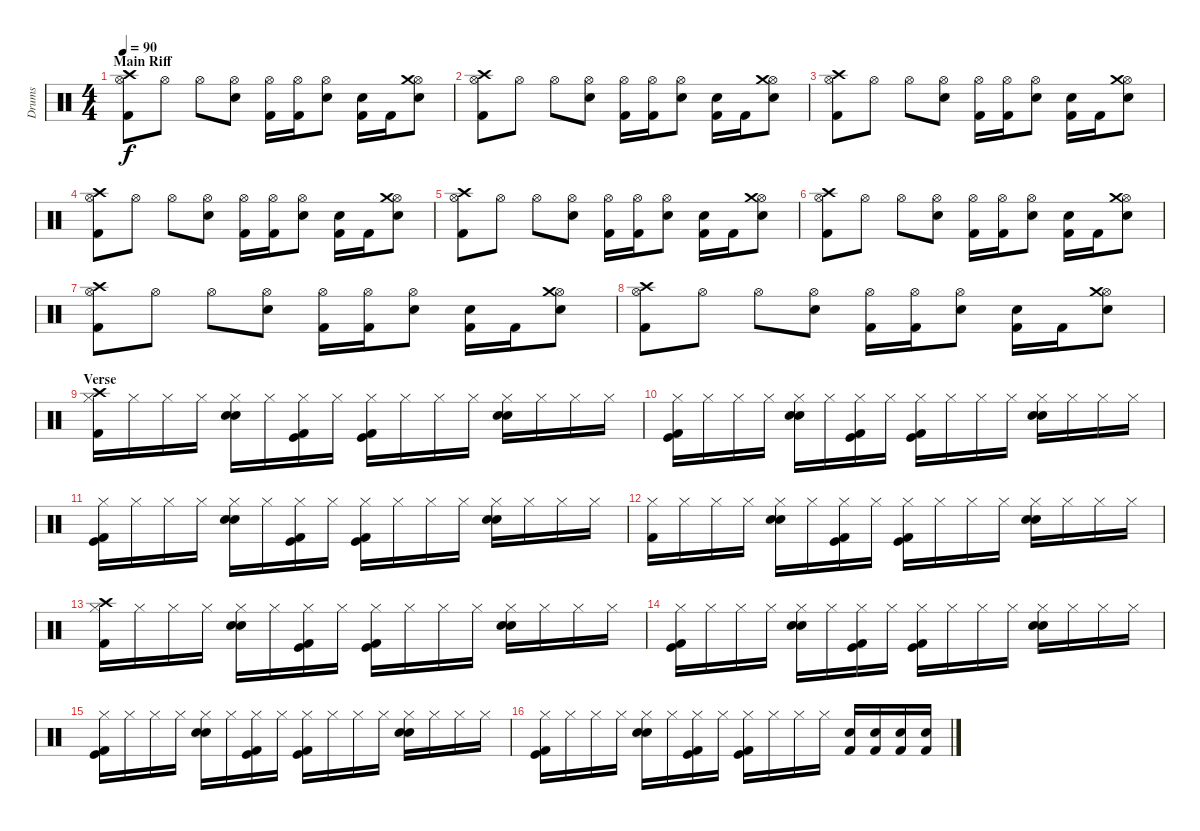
\track ("Drums" "Drums") {instrument percussion}
\staff {score}
\articulation defaults
\ts (4 4)
\section ("" "Main Riff")
\tempo 90
\clef neutral
\ks c
("Hi-Hat (open)" "Kick (hit) 2" "Crash high (hit)").8{dy f} "Hi-Hat (open)".8 "Hi-Hat (open)".8 ("Hi-Hat (open)" "Electric Snare (hit)").8 ("Hi-Hat (open)" "Kick (hit) 2").16 ("Hi-Hat (open)" "Kick (hit) 2").16 ("Electric Snare (hit)" "Hi-Hat (open)").8 ("Electric Snare (hit)" "Kick (hit) 2").16 "Kick (hit) 2".16 ("Electric Snare (hit)" "Hi-Hat (open)" "Crash medium (hit)").8 |
("Hi-Hat (open)" "Kick (hit) 2" "Crash high (hit)").8 "Hi-Hat (open)".8 "Hi-Hat (open)".8 ("Hi-Hat (open)" "Electric Snare (hit)").8 ("Hi-Hat (open)" "Kick (hit) 2").16 ("Hi-Hat (open)" "Kick (hit) 2").16 ("Electric Snare (hit)" "Hi-Hat (open)").8 ("Electric Snare (hit)" "Kick (hit) 2").16 "Kick (hit) 2".16 ("Electric Snare (hit)" "Hi-Hat (open)" "Crash medium (hit)").8 |
("Hi-Hat (open)" "Kick (hit) 2" "Crash high (hit)").8 "Hi-Hat (open)".8 "Hi-Hat (open)".8 ("Hi-Hat (open)" "Electric Snare (hit)").8 ("Hi-Hat (open)" "Kick (hit) 2").16 ("Hi-Hat (open)" "Kick (hit) 2").16 ("Electric Snare (hit)" "Hi-Hat (open)").8 ("Electric Snare (hit)" "Kick (hit) 2").16 "Kick (hit) 2".16 ("Electric Snare (hit)" "Hi-Hat (open)" "Crash medium (hit)").8 |
("Hi-Hat (open)" "Kick (hit) 2" "Crash high (hit)").8 "Hi-Hat (open)".8 "Hi-Hat (open)".8 ("Hi-Hat (open)" "Electric Snare (hit)").8 ("Hi-Hat (open)" "Kick (hit) 2").16 ("Hi-Hat (open)" "Kick (hit) 2").16 ("Electric Snare (hit)" "Hi-Hat (open)").8 ("Electric Snare (hit)" "Kick (hit) 2").16 "Kick (hit) 2".16 ("Electric Snare (hit)" "Hi-Hat (open)" "Crash medium (hit)").8 |
("Hi-Hat (open)" "Kick (hit) 2" "Crash high (hit)").8 "Hi-Hat (open)".8 "Hi-Hat (open)".8 ("Hi-Hat (open)" "Electric Snare (hit)").8 ("Hi-Hat (open)" "Kick (hit) 2").16 ("Hi-Hat (open)" "Kick (hit) 2").16 ("Electric Snare (hit)" "Hi-Hat (open)").8 ("Electric Snare (hit)" "Kick (hit) 2").16 "Kick (hit) 2".16 ("Electric Snare (hit)" "Hi-Hat (open)" "Crash medium (hit)").8 |
("Hi-Hat (open)" "Kick (hit) 2" "Crash high (hit)").8 "Hi-Hat (open)".8 "Hi-Hat (open)".8 ("Hi-Hat (open)" "Electric Snare (hit)").8 ("Hi-Hat (open)" "Kick (hit) 2").16 ("Hi-Hat (open)" "Kick (hit) 2").16 ("Electric Snare (hit)" "Hi-Hat (open)").8 ("Electric Snare (hit)" "Kick (hit) 2").16 "Kick (hit) 2".16 ("Electric Snare (hit)" "Hi-Hat (open)" "Crash medium (hit)").8 |
("Hi-Hat (open)" "Kick (hit) 2" "Crash high (hit)").8 "Hi-Hat (open)".8 "Hi-Hat (open)".8 ("Hi-Hat (open)" "Electric Snare (hit)").8 ("Hi-Hat (open)" "Kick (hit) 2").16 ("Hi-Hat (open)" "Kick (hit) 2").16 ("Electric Snare (hit)" "Hi-Hat (open)").8 ("Electric Snare (hit)" "Kick (hit) 2").16 "Kick (hit) 2".16 ("Electric Snare (hit)" "Hi-Hat (open)" "Crash medium (hit)").8 |
("Hi-Hat (open)" "Kick (hit) 2" "Crash high (hit)").8 "Hi-Hat (open)".8 "Hi-Hat (open)".8 ("Hi-Hat (open)" "Electric Snare (hit)").8 ("Hi-Hat (open)" "Kick (hit) 2").16 ("Hi-Hat (open)" "Kick (hit) 2").16 ("Electric Snare (hit)" "Hi-Hat (open)").8 ("Electric Snare (hit)" "Kick (hit) 2").16 "Kick (hit) 2".16 ("Electric Snare (hit)" "Hi-Hat (open)" "Crash medium (hit)").8 |
\section ("" "Verse")
("Hi-Hat (closed)" "Kick (hit) 2" "Crash high (hit)").16 "Hi-Hat (closed)".16 "Hi-Hat (closed)".16 "Hi-Hat (closed)".16 ("Hi-Hat (closed)" "Electric Snare (hit)" "Electric Snare (hit)").16 "Hi-Hat (closed)".16 ("Hi-Hat (closed)" "Kick (hit) 2" "Kick (hit)").16 "Hi-Hat (closed)".16 ("Hi-Hat (closed)" "Kick (hit) 2" "Kick (hit)").16 "Hi-Hat (closed)".16 "Hi-Hat (closed)".16 "Hi-Hat (closed)".16 ("Hi-Hat (closed)" "Electric Snare (hit)" "Electric Snare (hit)").16 "Hi-Hat (closed)".16 "Hi-Hat (closed)".16 "Hi-Hat (closed)".16 |
("Hi-Hat (closed)" "Kick (hit) 2" "Kick (hit)").16 "Hi-Hat (closed)".16 "Hi-Hat (closed)".16 "Hi-Hat (closed)".16 ("Hi-Hat (closed)" "Electric Snare (hit)" "Electric Snare (hit)").16 "Hi-Hat (closed)".16 ("Hi-Hat (closed)" "Kick (hit) 2" "Kick (hit)").16 "Hi-Hat (closed)".16 ("Hi-Hat (closed)" "Kick (hit) 2" "Kick (hit)").16 "Hi-Hat (closed)".16 "Hi-Hat (closed)".16 "Hi-Hat (closed)".16 ("Hi-Hat (closed)" "Electric Snare (hit)" "Electric Snare (hit)").16 "Hi-Hat (closed)".16 "Hi-Hat (closed)".16 "Hi-Hat (closed)".16 |
("Hi-Hat (closed)" "Kick (hit) 2" "Kick (hit)").16 "Hi-Hat (closed)".16 "Hi-Hat (closed)".16 "Hi-Hat (closed)".16 ("Hi-Hat (closed)" "Electric Snare (hit)" "Electric Snare (hit)").16 "Hi-Hat (closed)".16 ("Hi-Hat (closed)" "Kick (hit) 2" "Kick (hit)").16 "Hi-Hat (closed)".16 ("Hi-Hat (closed)" "Kick (hit) 2" "Kick (hit)").16 "Hi-Hat (closed)".16 "Hi-Hat (closed)".16 "Hi-Hat (closed)".16 ("Hi-Hat (closed)" "Electric Snare (hit)" "Electric Snare (hit)").16 "Hi-Hat (closed)".16 "Hi-Hat (closed)".16 "Hi-Hat (closed)".16 |
("Hi-Hat (closed)" "Kick (hit) 2").16 "Hi-Hat (closed)".16 "Hi-Hat (closed)".16 "Hi-Hat (closed)".16 ("Hi-Hat (closed)" "Electric Snare (hit)" "Electric Snare (hit)").16 "Hi-Hat (closed)".16 ("Hi-Hat (closed)" "Kick (hit) 2" "Kick (hit)").16 "Hi-Hat (closed)".16 ("Hi-Hat (closed)" "Kick (hit) 2" "Kick (hit)").16 "Hi-Hat (closed)".16 "Hi-Hat (closed)".16 "Hi-Hat (closed)".16 ("Hi-Hat (closed)" "Electric Snare (hit)" "Electric Snare (hit)").16 "Hi-Hat (closed)".16 "Hi-Hat (closed)".16 "Hi-Hat (closed)".16 |
("Hi-Hat (closed)" "Kick (hit) 2" "Crash high (hit)").16 "Hi-Hat (closed)".16 "Hi-Hat (closed)".16 "Hi-Hat (closed)".16 ("Hi-Hat (closed)" "Electric Snare (hit)" "Electric Snare (hit)").16 "Hi-Hat (closed)".16 ("Hi-Hat (closed)" "Kick (hit) 2" "Kick (hit)").16 "Hi-Hat (closed)".16 ("Hi-Hat (closed)" "Kick (hit) 2" "Kick (hit)").16 "Hi-Hat (closed)".16 "Hi-Hat (closed)".16 "Hi-Hat (closed)".16 ("Hi-Hat (closed)" "Electric Snare (hit)" "Electric Snare (hit)").16 "Hi-Hat (closed)".16 "Hi-Hat (closed)".16 "Hi-Hat (closed)".16 |
("Hi-Hat (closed)" "Kick (hit) 2" "Kick (hit)").16 "Hi-Hat (closed)".16 "Hi-Hat (closed)".16 "Hi-Hat (closed)".16 ("Hi-Hat (closed)" "Electric Snare (hit)" "Electric Snare (hit)").16 "Hi-Hat (closed)".16 ("Hi-Hat (closed)" "Kick (hit) 2" "Kick (hit)").16 "Hi-Hat (closed)".16 ("Hi-Hat (closed)" "Kick (hit) 2" "Kick (hit)").16 "Hi-Hat (closed)".16 "Hi-Hat (closed)".16 "Hi-Hat (closed)".16 ("Hi-Hat (closed)" "Electric Snare (hit)" "Electric Snare (hit)").16 "Hi-Hat (closed)".16 "Hi-Hat (closed)".16 "Hi-Hat (closed)".16 |
("Hi-Hat (closed)" "Kick (hit) 2" "Kick (hit)").16 "Hi-Hat (closed)".16 "Hi-Hat (closed)".16 "Hi-Hat (closed)".16 ("Hi-Hat (closed)" "Electric Snare (hit)" "Electric Snare (hit)").16 "Hi-Hat (closed)".16 ("Hi-Hat (closed)" "Kick (hit) 2" "Kick (hit)").16 "Hi-Hat (closed)".16 ("Hi-Hat (closed)" "Kick (hit) 2" "Kick (hit)").16 "Hi-Hat (closed)".16 "Hi-Hat (closed)".16 "Hi-Hat (closed)".16 ("Hi-Hat (closed)" "Electric Snare (hit)" "Electric Snare (hit)").16 "Hi-Hat (closed)".16 "Hi-Hat (closed)".16 "Hi-Hat (closed)".16 |
("Hi-Hat (closed)" "Kick (hit) 2" "Kick (hit)").16 "Hi-Hat (closed)".16 "Hi-Hat (closed)".16 "Hi-Hat (closed)".16 ("Hi-Hat (closed)" "Electric Snare (hit)" "Electric Snare (hit)").16 "Hi-Hat (closed)".16 ("Hi-Hat (closed)" "Kick (hit) 2" "Kick (hit)").16 "Hi-Hat (closed)".16 ("Hi-Hat (closed)" "Kick (hit) 2" "Kick (hit)").16 "Hi-Hat (closed)".16 "Hi-Hat (closed)".16 "Hi-Hat (closed)".16 ("Kick (hit) 2" "Electric Snare (hit)").16 ("Kick (hit) 2" "Electric Snare (hit)").16 ("Kick (hit) 2" "Electric Snare (hit)").16 ("Kick (hit) 2" "Electric Snare (hit)").16
